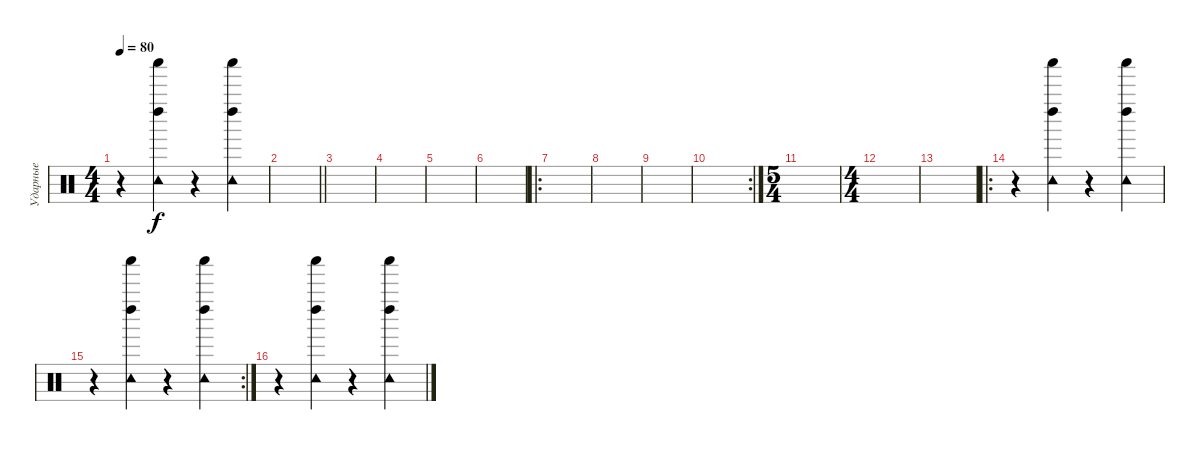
\track ("Ударные" "Ударные") {instrument percussion}
\staff {score}
\articulation defaults
\ts (4 4)
\tempo 80
\clef neutral
\ks c
r.4{dy f} ("Shaker (hit)" "Left Maraca (hit)" "Tambourine (hit)").4 r.4 ("Shaker (hit)" "Left Maraca (hit)" "Tambourine (hit)").4 |
\barLineRight lightlight
|
|
|
|
|
\ro
|
|
|
\rc 2
|
\ts (5 4)
|
\ts (4 4)
|
|
\ro
r.4 ("Shaker (hit)" "Left Maraca (hit)" "Tambourine (hit)").4 r.4 ("Shaker (hit)" "Left Maraca (hit)" "Tambourine (hit)").4 |
\rc 2
r.4 ("Shaker (hit)" "Left Maraca (hit)" "Tambourine (hit)").4 r.4 ("Shaker (hit)" "Left Maraca (hit)" "Tambourine (hit)").4 |
r.4 ("Shaker (hit)" "Left Maraca (hit)" "Tambourine (hit)").4 r.4 ("Shaker (hit)" "Left Maraca (hit)" "Tambourine (hit)").4
